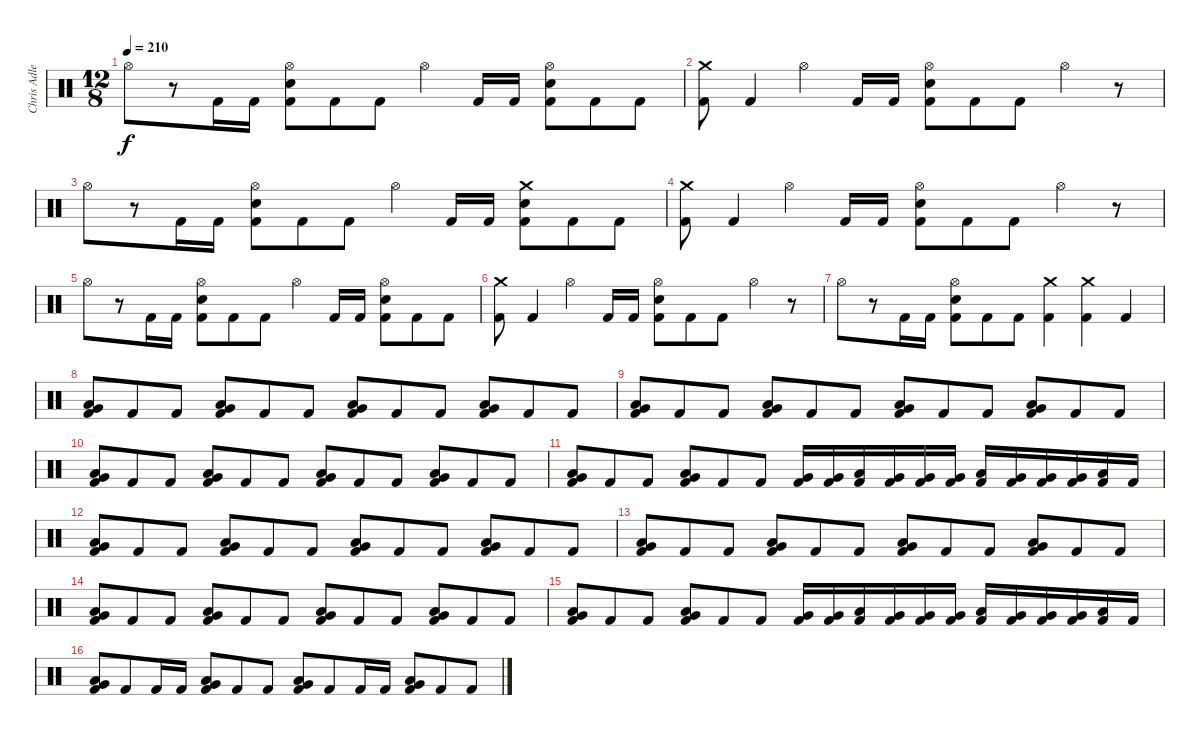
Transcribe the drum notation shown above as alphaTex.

\track ("Chris Adler" "Chris Adle") {instrument percussion}
\staff {score}
\articulation defaults
\ts (12 8)
\tempo 210
\clef neutral
\ks c "Hi-Hat (open)".8{dy f}
r.8 "Kick (hit) 2".16 "Kick (hit) 2".16 ("Hi-Hat (open)" "Snare (hit) 2" "Kick (hit) 2").8 "Kick (hit) 2".8 "Kick (hit) 2".8 "Hi-Hat (open)".4 "Kick (hit) 2".16 "Kick (hit) 2".16 ("Hi-Hat (open)" "Snare (hit) 2" "Kick (hit) 2").8 "Kick (hit) 2".8 "Kick (hit) 2".8 |
("Crash medium (hit)" "Kick (hit) 2").8 "Kick (hit) 2".4 "Hi-Hat (open)".4 "Kick (hit) 2".16 "Kick (hit) 2".16 ("Hi-Hat (open)" "Snare (hit) 2" "Kick (hit) 2").8 "Kick (hit) 2".8 "Kick (hit) 2".8 "Hi-Hat (open)".4 r.8 |
"Hi-Hat (open)".8 r.8 "Kick (hit) 2".16 "Kick (hit) 2".16 ("Hi-Hat (open)" "Snare (hit) 2" "Kick (hit) 2").8 "Kick (hit) 2".8 "Kick (hit) 2".8 "Hi-Hat (open)".4 "Kick (hit) 2".16 "Kick (hit) 2".16 ("Crash medium (hit)" "Snare (hit) 2" "Kick (hit) 2").8 "Kick (hit) 2".8 "Kick (hit) 2".8 |
("Crash medium (hit)" "Kick (hit) 2").8 "Kick (hit) 2".4 "Hi-Hat (open)".4 "Kick (hit) 2".16 "Kick (hit) 2".16 ("Hi-Hat (open)" "Snare (hit) 2" "Kick (hit) 2").8 "Kick (hit) 2".8 "Kick (hit) 2".8 "Hi-Hat (open)".4 r.8 |
"Hi-Hat (open)".8 r.8 "Kick (hit) 2".16 "Kick (hit) 2".16 ("Hi-Hat (open)" "Snare (hit) 2" "Kick (hit) 2").8 "Kick (hit) 2".8 "Kick (hit) 2".8 "Hi-Hat (open)".4 "Kick (hit) 2".16 "Kick (hit) 2".16 ("Hi-Hat (open)" "Snare (hit) 2" "Kick (hit) 2").8 "Kick (hit) 2".8 "Kick (hit) 2".8 |
("Crash medium (hit)" "Kick (hit) 2").8 "Kick (hit) 2".4 "Hi-Hat (open)".4 "Kick (hit) 2".16 "Kick (hit) 2".16 ("Hi-Hat (open)" "Snare (hit) 2" "Kick (hit) 2").8 "Kick (hit) 2".8 "Kick (hit) 2".8 "Hi-Hat (open)".4 r.8 |
"Hi-Hat (open)".8 r.8 "Kick (hit) 2".16 "Kick (hit) 2".16 ("Hi-Hat (open)" "Snare (hit) 2" "Kick (hit) 2").8 "Kick (hit) 2".8 "Kick (hit) 2".8 ("Crash medium (hit)" "Kick (hit) 2").4 ("Crash medium (hit)" "Kick (hit) 2").4 "Kick (hit) 2".4 |
("Very Low Tom (hit)" "Low Tom (hit)" "Kick (hit) 2").8 "Kick (hit) 2".8 "Kick (hit) 2".8 ("Very Low Tom (hit)" "Low Tom (hit)" "Kick (hit) 2").8 "Kick (hit) 2".8 "Kick (hit) 2".8 ("Very Low Tom (hit)" "Low Tom (hit)" "Kick (hit) 2").8 "Kick (hit) 2".8 "Kick (hit) 2".8 ("Very Low Tom (hit)" "Low Tom (hit)" "Kick (hit) 2").8 "Kick (hit) 2".8 "Kick (hit) 2".8 |
("Very Low Tom (hit)" "Low Tom (hit)" "Kick (hit) 2").8 "Kick (hit) 2".8 "Kick (hit) 2".8 ("Very Low Tom (hit)" "Low Tom (hit)" "Kick (hit) 2").8 "Kick (hit) 2".8 "Kick (hit) 2".8 ("Very Low Tom (hit)" "Low Tom (hit)" "Kick (hit) 2").8 "Kick (hit) 2".8 "Kick (hit) 2".8 ("Very Low Tom (hit)" "Low Tom (hit)" "Kick (hit) 2").8 "Kick (hit) 2".8 "Kick (hit) 2".8 |
("Very Low Tom (hit)" "Low Tom (hit)" "Kick (hit) 2").8 "Kick (hit) 2".8 "Kick (hit) 2".8 ("Very Low Tom (hit)" "Low Tom (hit)" "Kick (hit) 2").8 "Kick (hit) 2".8 "Kick (hit) 2".8 ("Very Low Tom (hit)" "Low Tom (hit)" "Kick (hit) 2").8 "Kick (hit) 2".8 "Kick (hit) 2".8 ("Very Low Tom (hit)" "Low Tom (hit)" "Kick (hit) 2").8 "Kick (hit) 2".8 "Kick (hit) 2".8 |
("Very Low Tom (hit)" "Low Tom (hit)" "Kick (hit) 2").8 "Kick (hit) 2".8 "Kick (hit) 2".8 ("Very Low Tom (hit)" "Low Tom (hit)" "Kick (hit) 2").8 "Kick (hit) 2".8 "Kick (hit) 2".8 ("Very Low Tom (hit)" "Kick (hit) 2").16 ("Very Low Tom (hit)" "Kick (hit) 2").16 ("Low Tom (hit)" "Kick (hit) 2").16 ("Very Low Tom (hit)" "Kick (hit) 2").16 ("Very Low Tom (hit)" "Kick (hit) 2").16 ("Very Low Tom (hit)" "Kick (hit) 2").16 ("Low Tom (hit)" "Kick (hit) 2").16 ("Very Low Tom (hit)" "Kick (hit) 2").16 ("Very Low Tom (hit)" "Kick (hit) 2").16 ("Very Low Tom (hit)" "Kick (hit) 2").16 ("Low Tom (hit)" "Kick (hit) 2").16 "Kick (hit) 2".16 |
("Very Low Tom (hit)" "Low Tom (hit)" "Kick (hit) 2").8 "Kick (hit) 2".8 "Kick (hit) 2".8 ("Very Low Tom (hit)" "Low Tom (hit)" "Kick (hit) 2").8 "Kick (hit) 2".8 "Kick (hit) 2".8 ("Very Low Tom (hit)" "Low Tom (hit)" "Kick (hit) 2").8 "Kick (hit) 2".8 "Kick (hit) 2".8 ("Very Low Tom (hit)" "Low Tom (hit)" "Kick (hit) 2").8 "Kick (hit) 2".8 "Kick (hit) 2".8 |
("Very Low Tom (hit)" "Low Tom (hit)" "Kick (hit) 2").8 "Kick (hit) 2".8 "Kick (hit) 2".8 ("Very Low Tom (hit)" "Low Tom (hit)" "Kick (hit) 2").8 "Kick (hit) 2".8 "Kick (hit) 2".8 ("Very Low Tom (hit)" "Low Tom (hit)" "Kick (hit) 2").8 "Kick (hit) 2".8 "Kick (hit) 2".8 ("Very Low Tom (hit)" "Low Tom (hit)" "Kick (hit) 2").8 "Kick (hit) 2".8 "Kick (hit) 2".8 |
("Very Low Tom (hit)" "Low Tom (hit)" "Kick (hit) 2").8 "Kick (hit) 2".8 "Kick (hit) 2".8 ("Very Low Tom (hit)" "Low Tom (hit)" "Kick (hit) 2").8 "Kick (hit) 2".8 "Kick (hit) 2".8 ("Very Low Tom (hit)" "Low Tom (hit)" "Kick (hit) 2").8 "Kick (hit) 2".8 "Kick (hit) 2".8 ("Very Low Tom (hit)" "Low Tom (hit)" "Kick (hit) 2").8 "Kick (hit) 2".8 "Kick (hit) 2".8 |
("Very Low Tom (hit)" "Low Tom (hit)" "Kick (hit) 2").8 "Kick (hit) 2".8 "Kick (hit) 2".8 ("Very Low Tom (hit)" "Low Tom (hit)" "Kick (hit) 2").8 "Kick (hit) 2".8 "Kick (hit) 2".8 ("Very Low Tom (hit)" "Kick (hit) 2").16 ("Very Low Tom (hit)" "Kick (hit) 2").16 ("Low Tom (hit)" "Kick (hit) 2").16 ("Very Low Tom (hit)" "Kick (hit) 2").16 ("Very Low Tom (hit)" "Kick (hit) 2").16 ("Very Low Tom (hit)" "Kick (hit) 2").16 ("Low Tom (hit)" "Kick (hit) 2").16 ("Very Low Tom (hit)" "Kick (hit) 2").16 ("Very Low Tom (hit)" "Kick (hit) 2").16 ("Very Low Tom (hit)" "Kick (hit) 2").16 ("Low Tom (hit)" "Kick (hit) 2").16 "Kick (hit) 2".16 |
("Very Low Tom (hit)" "Low Tom (hit)" "Kick (hit) 2").8 "Kick (hit) 2".8 "Kick (hit) 2".16 "Kick (hit) 2".16 ("Very Low Tom (hit)" "Low Tom (hit)" "Kick (hit) 2").8 "Kick (hit) 2".8 "Kick (hit) 2".8 ("Very Low Tom (hit)" "Low Tom (hit)" "Kick (hit) 2").8 "Kick (hit) 2".8 "Kick (hit) 2".16 "Kick (hit) 2".16 ("Very Low Tom (hit)" "Low Tom (hit)" "Kick (hit) 2").8 "Kick (hit) 2".8 "Kick (hit) 2".8
